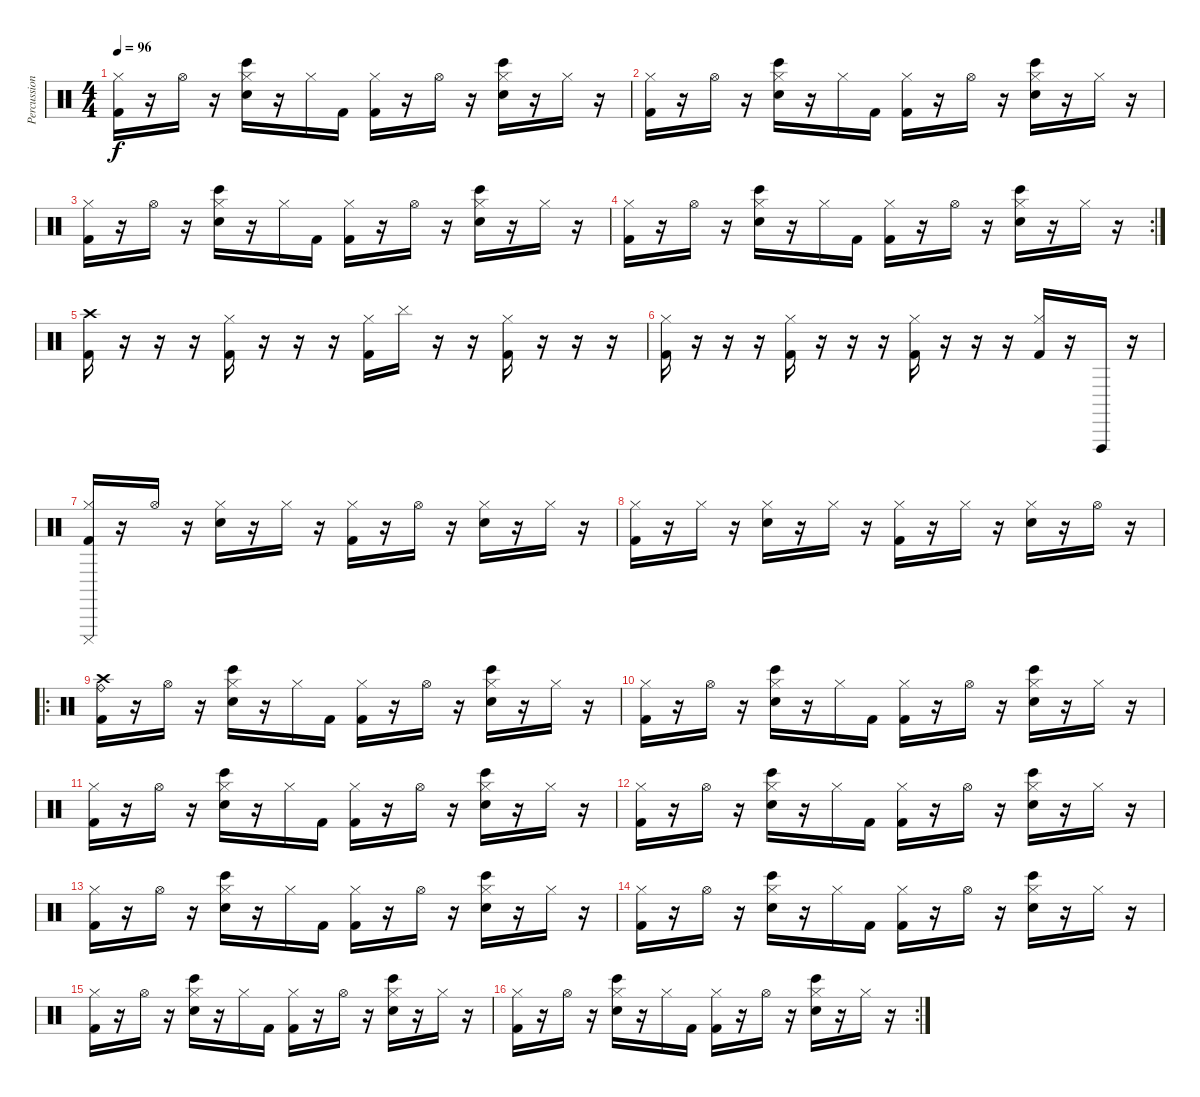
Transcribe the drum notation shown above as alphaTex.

\track ("Percussion" "Percussion") {instrument percussion}
\staff {score}
\articulation defaults
\ts (4 4)
\tempo 96
\clef neutral
\ks c
("Hi-Hat (closed)" "Kick (hit) 2").16{dy f} r.16 "Hi-Hat (open)".16 r.16 ("Hi-Hat (closed)" "Bongo High (hit)" "Snare (hit) 2").16 r.16 "Hi-Hat (closed)".16 "Kick (hit) 2".16 ("Hi-Hat (closed)" "Kick (hit) 2").16 r.16 "Hi-Hat (open)".16 r.16 ("Hi-Hat (closed)" "Bongo High (hit)" "Snare (hit) 2").16 r.16 "Hi-Hat (closed)".16 r.16 |
("Hi-Hat (closed)" "Kick (hit) 2").16 r.16 "Hi-Hat (open)".16 r.16 ("Hi-Hat (closed)" "Bongo High (hit)" "Snare (hit) 2").16 r.16 "Hi-Hat (closed)".16 "Kick (hit) 2".16 ("Hi-Hat (closed)" "Kick (hit) 2").16 r.16 "Hi-Hat (open)".16 r.16 ("Hi-Hat (closed)" "Bongo High (hit)" "Snare (hit) 2").16 r.16 "Hi-Hat (closed)".16 r.16 |
("Hi-Hat (closed)" "Kick (hit) 2").16 r.16 "Hi-Hat (open)".16 r.16 ("Hi-Hat (closed)" "Bongo High (hit)" "Snare (hit) 2").16 r.16 "Hi-Hat (closed)".16 "Kick (hit) 2".16 ("Hi-Hat (closed)" "Kick (hit) 2").16 r.16 "Hi-Hat (open)".16 r.16 ("Hi-Hat (closed)" "Bongo High (hit)" "Snare (hit) 2").16 r.16 "Hi-Hat (closed)".16 r.16 |
\rc 2
("Hi-Hat (closed)" "Kick (hit) 2").16 r.16 "Hi-Hat (open)".16 r.16 ("Hi-Hat (closed)" "Bongo High (hit)" "Snare (hit) 2").16 r.16 "Hi-Hat (closed)".16 "Kick (hit) 2".16 ("Hi-Hat (closed)" "Kick (hit) 2").16 r.16 "Hi-Hat (open)".16 r.16 ("Hi-Hat (closed)" "Bongo High (hit)" "Snare (hit) 2").16 r.16 "Hi-Hat (closed)".16 r.16 |
("Crash high (hit)" "Kick (hit) 2").16 r.16 r.16 r.16 ("Hi-Hat (closed)" "Kick (hit) 2").16 r.16 r.16 r.16 ("Hi-Hat (closed)" "Kick (hit) 2").16 "Cymbal (hit)".16 r.16 r.16 ("Hi-Hat (closed)" "Kick (hit) 2").16 r.16 r.16 r.16 |
("Hi-Hat (closed)" "Kick (hit) 2").16 r.16 r.16 r.16 ("Hi-Hat (closed)" "Kick (hit) 2").16 r.16 r.16 r.16 ("Hi-Hat (closed)" "Kick (hit) 2").16 r.16 r.16 r.16 ("Hi-Hat (closed)" "Kick (hit) 2").16 r.16 "Vibraslap (hit)".16 r.16 |
("Hi-Hat (closed)" "Cuica (mute)" "Kick (hit) 2").16 r.16 "Hi-Hat (open)".16 r.16 ("Hi-Hat (closed)" "Snare (hit) 2").16 r.16 "Hi-Hat (closed)".16 r.16 ("Hi-Hat (closed)" "Kick (hit) 2").16 r.16 "Hi-Hat (open)".16 r.16 ("Hi-Hat (closed)" "Snare (hit) 2").16 r.16 "Hi-Hat (closed)".16 r.16 |
("Hi-Hat (closed)" "Kick (hit) 2").16 r.16 "Hi-Hat (closed)".16 r.16 ("Hi-Hat (closed)" "Snare (hit) 2").16 r.16 "Hi-Hat (closed)".16 r.16 ("Hi-Hat (closed)" "Kick (hit) 2").16 r.16 "Hi-Hat (closed)".16 r.16 ("Hi-Hat (closed)" "Snare (hit) 2").16 r.16 "Hi-Hat (open)".16 r.16 |
\ro
("Crash high (hit)" "Ride (bell)" "Kick (hit) 2").16 r.16 "Hi-Hat (open)".16 r.16 ("Hi-Hat (closed)" "Bongo High (hit)" "Snare (hit) 2").16 r.16 "Hi-Hat (closed)".16 "Kick (hit) 2".16 ("Hi-Hat (closed)" "Kick (hit) 2").16 r.16 "Hi-Hat (open)".16 r.16 ("Hi-Hat (closed)" "Bongo High (hit)" "Snare (hit) 2").16 r.16 "Hi-Hat (closed)".16 r.16 |
("Hi-Hat (closed)" "Kick (hit) 2").16 r.16 "Hi-Hat (open)".16 r.16 ("Hi-Hat (closed)" "Bongo High (hit)" "Snare (hit) 2").16 r.16 "Hi-Hat (closed)".16 "Kick (hit) 2".16 ("Hi-Hat (closed)" "Kick (hit) 2").16 r.16 "Hi-Hat (open)".16 r.16 ("Hi-Hat (closed)" "Bongo High (hit)" "Snare (hit) 2").16 r.16 "Hi-Hat (closed)".16 r.16 |
("Hi-Hat (closed)" "Kick (hit) 2").16 r.16 "Hi-Hat (open)".16 r.16 ("Hi-Hat (closed)" "Bongo High (hit)" "Snare (hit) 2").16 r.16 "Hi-Hat (closed)".16 "Kick (hit) 2".16 ("Hi-Hat (closed)" "Kick (hit) 2").16 r.16 "Hi-Hat (open)".16 r.16 ("Hi-Hat (closed)" "Bongo High (hit)" "Snare (hit) 2").16 r.16 "Hi-Hat (closed)".16 r.16 |
("Hi-Hat (closed)" "Kick (hit) 2").16 r.16 "Hi-Hat (open)".16 r.16 ("Hi-Hat (closed)" "Bongo High (hit)" "Snare (hit) 2").16 r.16 "Hi-Hat (closed)".16 "Kick (hit) 2".16 ("Hi-Hat (closed)" "Kick (hit) 2").16 r.16 "Hi-Hat (open)".16 r.16 ("Hi-Hat (closed)" "Bongo High (hit)" "Snare (hit) 2").16 r.16 "Hi-Hat (closed)".16 r.16 |
("Hi-Hat (closed)" "Kick (hit) 2").16 r.16 "Hi-Hat (open)".16 r.16 ("Hi-Hat (closed)" "Bongo High (hit)" "Snare (hit) 2").16 r.16 "Hi-Hat (closed)".16 "Kick (hit) 2".16 ("Hi-Hat (closed)" "Kick (hit) 2").16 r.16 "Hi-Hat (open)".16 r.16 ("Hi-Hat (closed)" "Bongo High (hit)" "Snare (hit) 2").16 r.16 "Hi-Hat (closed)".16 r.16 |
("Hi-Hat (closed)" "Kick (hit) 2").16 r.16 "Hi-Hat (open)".16 r.16 ("Hi-Hat (closed)" "Bongo High (hit)" "Snare (hit) 2").16 r.16 "Hi-Hat (closed)".16 "Kick (hit) 2".16 ("Hi-Hat (closed)" "Kick (hit) 2").16 r.16 "Hi-Hat (open)".16 r.16 ("Hi-Hat (closed)" "Bongo High (hit)" "Snare (hit) 2").16 r.16 "Hi-Hat (closed)".16 r.16 |
("Hi-Hat (closed)" "Kick (hit) 2").16 r.16 "Hi-Hat (open)".16 r.16 ("Hi-Hat (closed)" "Bongo High (hit)" "Snare (hit) 2").16 r.16 "Hi-Hat (closed)".16 "Kick (hit) 2".16 ("Hi-Hat (closed)" "Kick (hit) 2").16 r.16 "Hi-Hat (open)".16 r.16 ("Hi-Hat (closed)" "Bongo High (hit)" "Snare (hit) 2").16 r.16 "Hi-Hat (closed)".16 r.16 |
\rc 2
("Hi-Hat (closed)" "Kick (hit) 2").16 r.16 "Hi-Hat (open)".16 r.16 ("Hi-Hat (closed)" "Bongo High (hit)" "Snare (hit) 2").16 r.16 "Hi-Hat (closed)".16 "Kick (hit) 2".16 ("Hi-Hat (closed)" "Kick (hit) 2").16 r.16 "Hi-Hat (open)".16 r.16 ("Hi-Hat (closed)" "Bongo High (hit)" "Snare (hit) 2").16 r.16 "Hi-Hat (closed)".16 r.16
